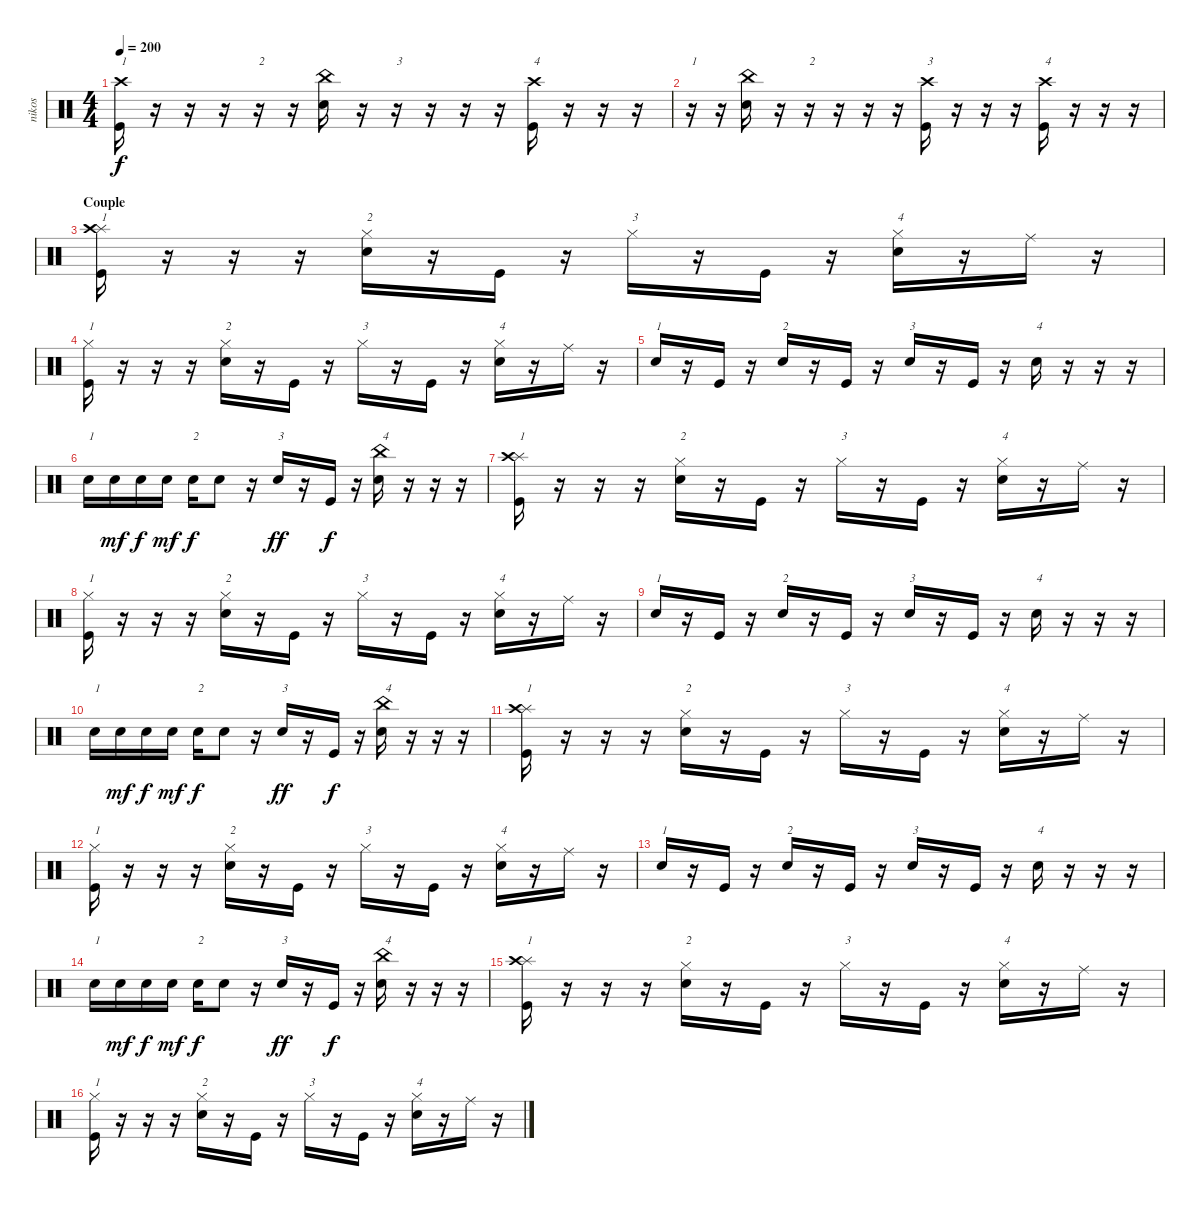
\track ("nikos" "nikos") {instrument percussion}
\staff {score}
\articulation defaults
\ts (4 4)
\tempo 200
\clef neutral
\ks c
("Crash high (hit)" "Kick (hit)").16{txt "1" dy f} r.16 r.16 r.16 r.16{txt "2"} r.16 ("China (hit)" "Electric Snare (hit)").16 r.16 r.16{txt "3"} r.16 r.16 r.16 ("Crash high (hit)" "Kick (hit)").16{txt "4"} r.16 r.16 r.16 |
r.16{txt "1"} r.16 ("China (hit)" "Electric Snare (hit)").16 r.16 r.16{txt "2"} r.16 r.16 r.16 ("Crash high (hit)" "Kick (hit)").16{txt "3"} r.16 r.16 r.16 ("Crash high (hit)" "Kick (hit)").16{txt "4"} r.16 r.16 r.16 |
\section ("" "Couple")
("Splash (hit)" "Crash high (hit)" "Kick (hit)").16{txt "1"} r.16 r.16 r.16 ("Hi-Hat (closed)" "Electric Snare (hit)").16{txt "2"} r.16 "Kick (hit)".16 r.16 "Hi-Hat (closed)".16{txt "3"} r.16 "Kick (hit)".16 r.16 ("Hi-Hat (closed)" "Electric Snare (hit)").16{txt "4"} r.16 "Ride (middle)".16 r.16 |
("Hi-Hat (closed)" "Kick (hit)").16{txt "1"} r.16 r.16 r.16 ("Hi-Hat (closed)" "Electric Snare (hit)").16{txt "2"} r.16 "Kick (hit)".16 r.16 "Hi-Hat (closed)".16{txt "3"} r.16 "Kick (hit)".16 r.16 ("Hi-Hat (closed)" "Electric Snare (hit)").16{txt "4"} r.16 "Ride (middle)".16 r.16 |
"Electric Snare (hit)".16{txt "1"} r.16 "Kick (hit)".16 r.16 "Electric Snare (hit)".16{txt "2"} r.16 "Kick (hit)".16 r.16 "Electric Snare (hit)".16{txt "3"} r.16 "Kick (hit)".16 r.16 "Electric Snare (hit)".16{txt "4"} r.16 r.16 r.16 |
"Electric Snare (hit)".16{txt "1"} "Electric Snare (hit)".16{dy mf} "Electric Snare (hit)".16{dy f} "Electric Snare (hit)".16{dy mf} "Electric Snare (hit)".16{txt "2" dy f} "Electric Snare (hit)".8 r.16 "Electric Snare (hit)".16{txt "3" dy ff} r.16 "Kick (hit)".16{dy f} r.16 ("China (hit)" "Electric Snare (hit)").16{txt "4"} r.16 r.16 r.16 |
("Splash (hit)" "Crash high (hit)" "Kick (hit)").16{txt "1"} r.16 r.16 r.16 ("Hi-Hat (closed)" "Electric Snare (hit)").16{txt "2"} r.16 "Kick (hit)".16 r.16 "Hi-Hat (closed)".16{txt "3"} r.16 "Kick (hit)".16 r.16 ("Hi-Hat (closed)" "Electric Snare (hit)").16{txt "4"} r.16 "Ride (middle)".16 r.16 |
("Hi-Hat (closed)" "Kick (hit)").16{txt "1"} r.16 r.16 r.16 ("Hi-Hat (closed)" "Electric Snare (hit)").16{txt "2"} r.16 "Kick (hit)".16 r.16 "Hi-Hat (closed)".16{txt "3"} r.16 "Kick (hit)".16 r.16 ("Hi-Hat (closed)" "Electric Snare (hit)").16{txt "4"} r.16 "Ride (middle)".16 r.16 |
"Electric Snare (hit)".16{txt "1"} r.16 "Kick (hit)".16 r.16 "Electric Snare (hit)".16{txt "2"} r.16 "Kick (hit)".16 r.16 "Electric Snare (hit)".16{txt "3"} r.16 "Kick (hit)".16 r.16 "Electric Snare (hit)".16{txt "4"} r.16 r.16 r.16 |
"Electric Snare (hit)".16{txt "1"} "Electric Snare (hit)".16{dy mf} "Electric Snare (hit)".16{dy f} "Electric Snare (hit)".16{dy mf} "Electric Snare (hit)".16{txt "2" dy f} "Electric Snare (hit)".8 r.16 "Electric Snare (hit)".16{txt "3" dy ff} r.16 "Kick (hit)".16{dy f} r.16 ("China (hit)" "Electric Snare (hit)").16{txt "4"} r.16 r.16 r.16 |
("Splash (hit)" "Crash high (hit)" "Kick (hit)").16{txt "1"} r.16 r.16 r.16 ("Hi-Hat (closed)" "Electric Snare (hit)").16{txt "2"} r.16 "Kick (hit)".16 r.16 "Hi-Hat (closed)".16{txt "3"} r.16 "Kick (hit)".16 r.16 ("Hi-Hat (closed)" "Electric Snare (hit)").16{txt "4"} r.16 "Ride (middle)".16 r.16 |
("Hi-Hat (closed)" "Kick (hit)").16{txt "1"} r.16 r.16 r.16 ("Hi-Hat (closed)" "Electric Snare (hit)").16{txt "2"} r.16 "Kick (hit)".16 r.16 "Hi-Hat (closed)".16{txt "3"} r.16 "Kick (hit)".16 r.16 ("Hi-Hat (closed)" "Electric Snare (hit)").16{txt "4"} r.16 "Ride (middle)".16 r.16 |
"Electric Snare (hit)".16{txt "1"} r.16 "Kick (hit)".16 r.16 "Electric Snare (hit)".16{txt "2"} r.16 "Kick (hit)".16 r.16 "Electric Snare (hit)".16{txt "3"} r.16 "Kick (hit)".16 r.16 "Electric Snare (hit)".16{txt "4"} r.16 r.16 r.16 |
"Electric Snare (hit)".16{txt "1"} "Electric Snare (hit)".16{dy mf} "Electric Snare (hit)".16{dy f} "Electric Snare (hit)".16{dy mf} "Electric Snare (hit)".16{txt "2" dy f} "Electric Snare (hit)".8 r.16 "Electric Snare (hit)".16{txt "3" dy ff} r.16 "Kick (hit)".16{dy f} r.16 ("China (hit)" "Electric Snare (hit)").16{txt "4"} r.16 r.16 r.16 |
("Splash (hit)" "Crash high (hit)" "Kick (hit)").16{txt "1"} r.16 r.16 r.16 ("Hi-Hat (closed)" "Electric Snare (hit)").16{txt "2"} r.16 "Kick (hit)".16 r.16 "Hi-Hat (closed)".16{txt "3"} r.16 "Kick (hit)".16 r.16 ("Hi-Hat (closed)" "Electric Snare (hit)").16{txt "4"} r.16 "Ride (middle)".16 r.16 |
("Hi-Hat (closed)" "Kick (hit)").16{txt "1"} r.16 r.16 r.16 ("Hi-Hat (closed)" "Electric Snare (hit)").16{txt "2"} r.16 "Kick (hit)".16 r.16 "Hi-Hat (closed)".16{txt "3"} r.16 "Kick (hit)".16 r.16 ("Hi-Hat (closed)" "Electric Snare (hit)").16{txt "4"} r.16 "Ride (middle)".16 r.16
